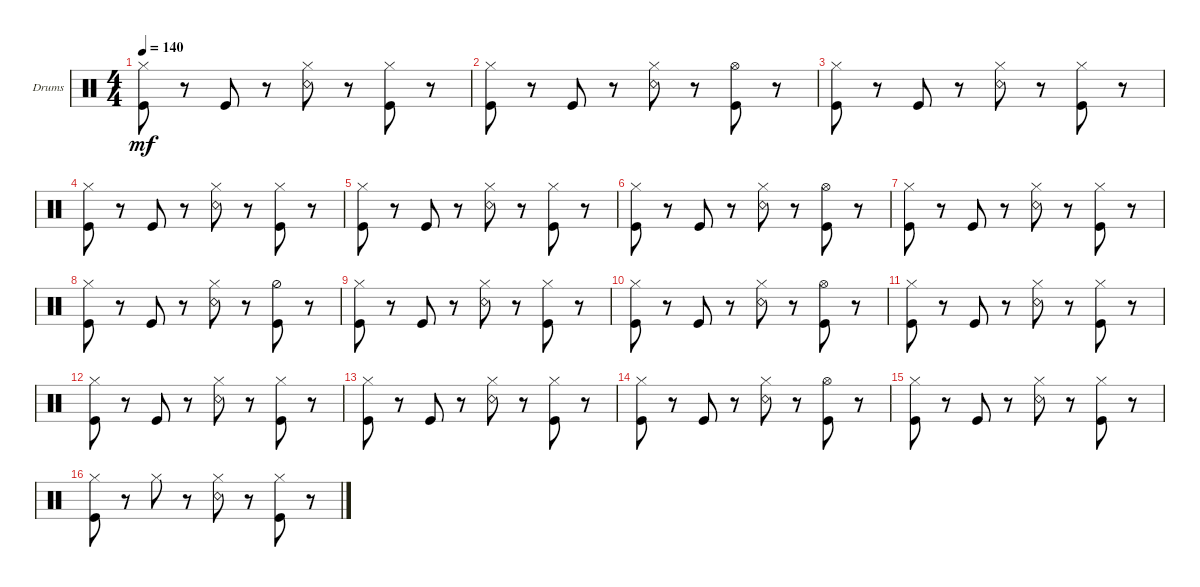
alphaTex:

\defaultSystemsLayout 4
\bracketExtendMode groupsimilarinstruments
\firstSystemTrackNameOrientation horizontal
\otherSystemsTrackNameOrientation horizontal
\track ("Drumkit" "Drums") {instrument percussion}
\staff {score}
\articulation defaults
\ts (4 4)
\tempo 140
\clef neutral
\ks c
("Kick (hit)" "Hi-Hat (closed)").8{dy mf} r.8 "Kick (hit)".8 r.8 ("Hi-Hat (closed)" "Snare (rim shot)").8 r.8 ("Hi-Hat (closed)" "Kick (hit)").8 r.8 |
("Hi-Hat (closed)" "Kick (hit)").8 r.8 "Kick (hit)".8 r.8 ("Hi-Hat (closed)" "Snare (rim shot)").8 r.8 ("Hi-Hat (open)" "Kick (hit)").8 r.8 |
("Kick (hit)" "Hi-Hat (closed)").8 r.8 "Kick (hit)".8 r.8 ("Hi-Hat (closed)" "Snare (rim shot)").8 r.8 ("Hi-Hat (closed)" "Kick (hit)").8 r.8 |
("Hi-Hat (closed)" "Kick (hit)").8 r.8 "Kick (hit)".8 r.8 ("Hi-Hat (closed)" "Snare (rim shot)").8 r.8 ("Hi-Hat (closed)" "Kick (hit)").8 r.8 |
("Kick (hit)" "Hi-Hat (closed)").8 r.8 "Kick (hit)".8 r.8 ("Hi-Hat (closed)" "Snare (rim shot)").8 r.8 ("Hi-Hat (closed)" "Kick (hit)").8 r.8 |
("Hi-Hat (closed)" "Kick (hit)").8 r.8 "Kick (hit)".8 r.8 ("Hi-Hat (closed)" "Snare (rim shot)").8 r.8 ("Hi-Hat (open)" "Kick (hit)").8 r.8 |
("Kick (hit)" "Hi-Hat (closed)").8 r.8 "Kick (hit)".8 r.8 ("Hi-Hat (closed)" "Snare (rim shot)").8 r.8 ("Hi-Hat (closed)" "Kick (hit)").8 r.8 |
("Hi-Hat (closed)" "Kick (hit)").8 r.8 "Kick (hit)".8 r.8 ("Hi-Hat (closed)" "Snare (rim shot)").8 r.8 ("Hi-Hat (half)" "Kick (hit)").8 r.8 |
("Kick (hit)" "Hi-Hat (closed)").8 r.8 "Kick (hit)".8 r.8 ("Hi-Hat (closed)" "Snare (rim shot)").8 r.8 ("Hi-Hat (closed)" "Kick (hit)").8 r.8 |
("Hi-Hat (closed)" "Kick (hit)").8 r.8 "Kick (hit)".8 r.8 ("Hi-Hat (closed)" "Snare (rim shot)").8 r.8 ("Hi-Hat (open)" "Kick (hit)").8 r.8 |
("Kick (hit)" "Hi-Hat (closed)").8 r.8 "Kick (hit)".8 r.8 ("Hi-Hat (closed)" "Snare (rim shot)").8 r.8 ("Hi-Hat (closed)" "Kick (hit)").8 r.8 |
("Hi-Hat (closed)" "Kick (hit)").8 r.8 "Kick (hit)".8 r.8 ("Hi-Hat (closed)" "Snare (rim shot)").8 r.8 ("Hi-Hat (closed)" "Kick (hit)").8 r.8 |
("Kick (hit)" "Hi-Hat (closed)").8 r.8 "Kick (hit)".8 r.8 ("Hi-Hat (closed)" "Snare (rim shot)").8 r.8 ("Hi-Hat (closed)" "Kick (hit)").8 r.8 |
("Hi-Hat (closed)" "Kick (hit)").8 r.8 "Kick (hit)".8 r.8 ("Hi-Hat (closed)" "Snare (rim shot)").8 r.8 ("Hi-Hat (open)" "Kick (hit)").8 r.8 |
("Kick (hit)" "Hi-Hat (closed)").8 r.8 "Kick (hit)".8 r.8 ("Hi-Hat (closed)" "Snare (rim shot)").8 r.8 ("Hi-Hat (closed)" "Kick (hit)").8 r.8 |
("Kick (hit)" "Hi-Hat (closed)").8 r.8 "Hi-Hat (closed)".8 r.8 ("Hi-Hat (closed)" "Snare (rim shot)").8 r.8 ("Hi-Hat (closed)" "Kick (hit)").8 r.8
